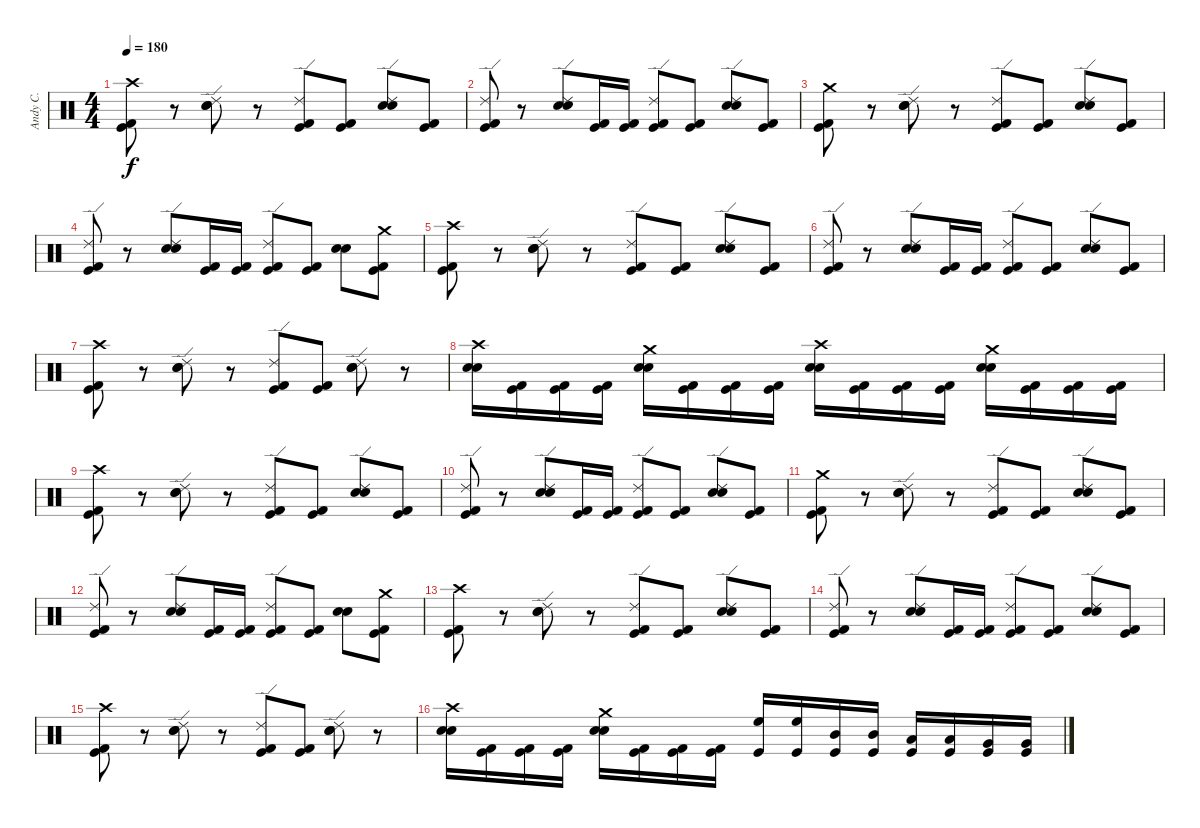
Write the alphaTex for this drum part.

\track ("Andy C." "Andy C.") {instrument percussion}
\staff {score}
\articulation defaults
\ts (4 4)
\tempo 180
\clef neutral
\ks c
("Crash high (hit)" "Kick (hit)" "Kick (hit) 2").8{dy f} r.8 ("Ride (edge) 2" "Snare (hit) 2" "Electric Snare (hit)").8 r.8 ("Ride (edge) 2" "Kick (hit)" "Kick (hit) 2").8 ("Kick (hit)" "Kick (hit) 2").8 ("Ride (edge) 2" "Snare (hit) 2" "Electric Snare (hit)").8 ("Kick (hit)" "Kick (hit) 2").8 |
("Ride (edge) 2" "Kick (hit)" "Kick (hit) 2").8 r.8 ("Ride (edge) 2" "Snare (hit) 2" "Electric Snare (hit)").8 ("Kick (hit)" "Kick (hit) 2").16 ("Kick (hit)" "Kick (hit) 2").16 ("Ride (edge) 2" "Kick (hit)" "Kick (hit) 2").8 ("Kick (hit)" "Kick (hit) 2").8 ("Ride (edge) 2" "Snare (hit) 2" "Electric Snare (hit)").8 ("Kick (hit)" "Kick (hit) 2").8 |
("Crash medium (hit)" "Kick (hit)" "Kick (hit) 2").8 r.8 ("Ride (edge) 2" "Snare (hit) 2" "Electric Snare (hit)").8 r.8 ("Ride (edge) 2" "Kick (hit)" "Kick (hit) 2").8 ("Kick (hit)" "Kick (hit) 2").8 ("Ride (edge) 2" "Snare (hit) 2" "Electric Snare (hit)").8 ("Kick (hit)" "Kick (hit) 2").8 |
("Ride (edge) 2" "Kick (hit)" "Kick (hit) 2").8 r.8 ("Ride (edge) 2" "Snare (hit) 2" "Electric Snare (hit)").8 ("Kick (hit)" "Kick (hit) 2").16 ("Kick (hit)" "Kick (hit) 2").16 ("Ride (edge) 2" "Kick (hit)" "Kick (hit) 2").8 ("Kick (hit)" "Kick (hit) 2").8 ("Snare (hit) 2" "Electric Snare (hit)").8 ("Crash medium (hit)" "Kick (hit)" "Kick (hit) 2").8 |
("Crash high (hit)" "Kick (hit)" "Kick (hit) 2").8 r.8 ("Ride (edge) 2" "Snare (hit) 2" "Electric Snare (hit)").8 r.8 ("Ride (edge) 2" "Kick (hit)" "Kick (hit) 2").8 ("Kick (hit)" "Kick (hit) 2").8 ("Ride (edge) 2" "Snare (hit) 2" "Electric Snare (hit)").8 ("Kick (hit)" "Kick (hit) 2").8 |
("Ride (edge) 2" "Kick (hit)" "Kick (hit) 2").8 r.8 ("Ride (edge) 2" "Snare (hit) 2" "Electric Snare (hit)").8 ("Kick (hit)" "Kick (hit) 2").16 ("Kick (hit)" "Kick (hit) 2").16 ("Ride (edge) 2" "Kick (hit)" "Kick (hit) 2").8 ("Kick (hit)" "Kick (hit) 2").8 ("Ride (edge) 2" "Snare (hit) 2" "Electric Snare (hit)").8 ("Kick (hit)" "Kick (hit) 2").8 |
("Crash high (hit)" "Kick (hit)" "Kick (hit) 2").8 r.8 ("Ride (edge) 2" "Snare (hit) 2" "Electric Snare (hit)").8 r.8 ("Ride (edge) 2" "Kick (hit)" "Kick (hit) 2").8 ("Kick (hit)" "Kick (hit) 2").8 ("Ride (edge) 2" "Snare (hit) 2" "Electric Snare (hit)").8 r.8 |
("Crash high (hit)" "Snare (hit) 2" "Electric Snare (hit)").16 ("Kick (hit)" "Kick (hit) 2").16 ("Kick (hit)" "Kick (hit) 2").16 ("Kick (hit)" "Kick (hit) 2").16 ("Crash medium (hit)" "Snare (hit) 2" "Electric Snare (hit)").16 ("Kick (hit)" "Kick (hit) 2").16 ("Kick (hit)" "Kick (hit) 2").16 ("Kick (hit)" "Kick (hit) 2").16 ("Crash high (hit)" "Snare (hit) 2" "Electric Snare (hit)").16 ("Kick (hit)" "Kick (hit) 2").16 ("Kick (hit)" "Kick (hit) 2").16 ("Kick (hit)" "Kick (hit) 2").16 ("Crash medium (hit)" "Snare (hit) 2" "Electric Snare (hit)").16 ("Kick (hit)" "Kick (hit) 2").16 ("Kick (hit)" "Kick (hit) 2").16 ("Kick (hit)" "Kick (hit) 2").16 |
("Crash high (hit)" "Kick (hit)" "Kick (hit) 2").8 r.8 ("Ride (edge) 2" "Snare (hit) 2" "Electric Snare (hit)").8 r.8 ("Ride (edge) 2" "Kick (hit)" "Kick (hit) 2").8 ("Kick (hit)" "Kick (hit) 2").8 ("Ride (edge) 2" "Snare (hit) 2" "Electric Snare (hit)").8 ("Kick (hit)" "Kick (hit) 2").8 |
("Ride (edge) 2" "Kick (hit)" "Kick (hit) 2").8 r.8 ("Ride (edge) 2" "Snare (hit) 2" "Electric Snare (hit)").8 ("Kick (hit)" "Kick (hit) 2").16 ("Kick (hit)" "Kick (hit) 2").16 ("Ride (edge) 2" "Kick (hit)" "Kick (hit) 2").8 ("Kick (hit)" "Kick (hit) 2").8 ("Ride (edge) 2" "Snare (hit) 2" "Electric Snare (hit)").8 ("Kick (hit)" "Kick (hit) 2").8 |
("Crash medium (hit)" "Kick (hit)" "Kick (hit) 2").8 r.8 ("Ride (edge) 2" "Snare (hit) 2" "Electric Snare (hit)").8 r.8 ("Ride (edge) 2" "Kick (hit)" "Kick (hit) 2").8 ("Kick (hit)" "Kick (hit) 2").8 ("Ride (edge) 2" "Snare (hit) 2" "Electric Snare (hit)").8 ("Kick (hit)" "Kick (hit) 2").8 |
("Ride (edge) 2" "Kick (hit)" "Kick (hit) 2").8 r.8 ("Ride (edge) 2" "Snare (hit) 2" "Electric Snare (hit)").8 ("Kick (hit)" "Kick (hit) 2").16 ("Kick (hit)" "Kick (hit) 2").16 ("Ride (edge) 2" "Kick (hit)" "Kick (hit) 2").8 ("Kick (hit)" "Kick (hit) 2").8 ("Snare (hit) 2" "Electric Snare (hit)").8 ("Crash medium (hit)" "Kick (hit)" "Kick (hit) 2").8 |
("Crash high (hit)" "Kick (hit)" "Kick (hit) 2").8 r.8 ("Ride (edge) 2" "Snare (hit) 2" "Electric Snare (hit)").8 r.8 ("Ride (edge) 2" "Kick (hit)" "Kick (hit) 2").8 ("Kick (hit)" "Kick (hit) 2").8 ("Ride (edge) 2" "Snare (hit) 2" "Electric Snare (hit)").8 ("Kick (hit)" "Kick (hit) 2").8 |
("Ride (edge) 2" "Kick (hit)" "Kick (hit) 2").8 r.8 ("Ride (edge) 2" "Snare (hit) 2" "Electric Snare (hit)").8 ("Kick (hit)" "Kick (hit) 2").16 ("Kick (hit)" "Kick (hit) 2").16 ("Ride (edge) 2" "Kick (hit)" "Kick (hit) 2").8 ("Kick (hit)" "Kick (hit) 2").8 ("Ride (edge) 2" "Snare (hit) 2" "Electric Snare (hit)").8 ("Kick (hit)" "Kick (hit) 2").8 |
("Crash high (hit)" "Kick (hit)" "Kick (hit) 2").8 r.8 ("Ride (edge) 2" "Snare (hit) 2" "Electric Snare (hit)").8 r.8 ("Ride (edge) 2" "Kick (hit)" "Kick (hit) 2").8 ("Kick (hit)" "Kick (hit) 2").8 ("Ride (edge) 2" "Snare (hit) 2" "Electric Snare (hit)").8 r.8 |
("Crash high (hit)" "Snare (hit) 2" "Electric Snare (hit)").16 ("Kick (hit)" "Kick (hit) 2").16 ("Kick (hit)" "Kick (hit) 2").16 ("Kick (hit)" "Kick (hit) 2").16 ("Crash medium (hit)" "Snare (hit) 2" "Electric Snare (hit)").16 ("Kick (hit)" "Kick (hit) 2").16 ("Kick (hit)" "Kick (hit) 2").16 ("Kick (hit)" "Kick (hit) 2").16 ("Kick (hit)" "High Floor Tom (hit)").16{balance 16} ("Kick (hit)" "High Floor Tom (hit)").16{balance 16} ("Kick (hit)" "Mid Tom (hit)").16{balance 11} ("Kick (hit)" "Mid Tom (hit)").16{balance 11} ("Kick (hit)" "Low Tom (hit)").16{balance 8} ("Kick (hit)" "Low Tom (hit)").16{balance 8} ("Kick (hit)" "Very Low Tom (hit)").16{balance 0} ("Kick (hit)" "Very Low Tom (hit)").16{balance 0}
